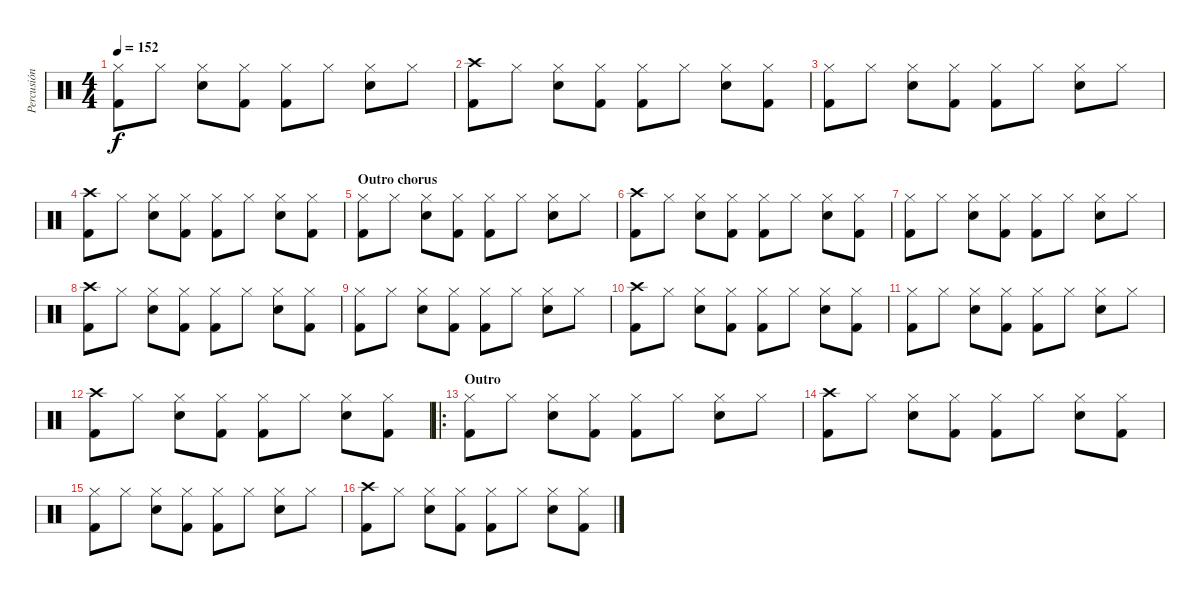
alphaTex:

\track ("Percusión" "Percusión") {instrument percussion}
\staff {score}
\articulation defaults
\ts (4 4)
\tempo 152
\clef neutral
\ks c
("Kick (hit) 2" "Hi-Hat (closed)").8{dy f} "Hi-Hat (closed)".8 ("Hi-Hat (closed)" "Electric Snare (hit)").8 ("Kick (hit) 2" "Hi-Hat (closed)").8 ("Kick (hit) 2" "Hi-Hat (closed)").8 "Hi-Hat (closed)".8 ("Hi-Hat (closed)" "Electric Snare (hit)").8 "Hi-Hat (closed)".8 |
("Kick (hit) 2" "Crash high (hit)").8 "Hi-Hat (closed)".8 ("Hi-Hat (closed)" "Electric Snare (hit)").8 ("Kick (hit) 2" "Hi-Hat (closed)").8 ("Kick (hit) 2" "Hi-Hat (closed)").8 "Hi-Hat (closed)".8 ("Hi-Hat (closed)" "Electric Snare (hit)").8 ("Kick (hit) 2" "Hi-Hat (closed)").8 |
("Kick (hit) 2" "Hi-Hat (closed)").8 "Hi-Hat (closed)".8 ("Hi-Hat (closed)" "Electric Snare (hit)").8 ("Kick (hit) 2" "Hi-Hat (closed)").8 ("Kick (hit) 2" "Hi-Hat (closed)").8 "Hi-Hat (closed)".8 ("Hi-Hat (closed)" "Electric Snare (hit)").8 "Hi-Hat (closed)".8 |
("Kick (hit) 2" "Crash high (hit)").8 "Hi-Hat (closed)".8 ("Hi-Hat (closed)" "Electric Snare (hit)").8 ("Kick (hit) 2" "Hi-Hat (closed)").8 ("Kick (hit) 2" "Hi-Hat (closed)").8 "Hi-Hat (closed)".8 ("Hi-Hat (closed)" "Electric Snare (hit)").8 ("Kick (hit) 2" "Hi-Hat (closed)").8 |
\section ("" "Outro chorus")
("Kick (hit) 2" "Hi-Hat (closed)").8 "Hi-Hat (closed)".8 ("Hi-Hat (closed)" "Electric Snare (hit)").8 ("Kick (hit) 2" "Hi-Hat (closed)").8 ("Kick (hit) 2" "Hi-Hat (closed)").8 "Hi-Hat (closed)".8 ("Hi-Hat (closed)" "Electric Snare (hit)").8 "Hi-Hat (closed)".8 |
("Kick (hit) 2" "Crash high (hit)").8 "Hi-Hat (closed)".8 ("Hi-Hat (closed)" "Electric Snare (hit)").8 ("Kick (hit) 2" "Hi-Hat (closed)").8 ("Kick (hit) 2" "Hi-Hat (closed)").8 "Hi-Hat (closed)".8 ("Hi-Hat (closed)" "Electric Snare (hit)").8 ("Kick (hit) 2" "Hi-Hat (closed)").8 |
("Kick (hit) 2" "Hi-Hat (closed)").8 "Hi-Hat (closed)".8 ("Hi-Hat (closed)" "Electric Snare (hit)").8 ("Kick (hit) 2" "Hi-Hat (closed)").8 ("Kick (hit) 2" "Hi-Hat (closed)").8 "Hi-Hat (closed)".8 ("Hi-Hat (closed)" "Electric Snare (hit)").8 "Hi-Hat (closed)".8 |
("Kick (hit) 2" "Crash high (hit)").8 "Hi-Hat (closed)".8 ("Hi-Hat (closed)" "Electric Snare (hit)").8 ("Kick (hit) 2" "Hi-Hat (closed)").8 ("Kick (hit) 2" "Hi-Hat (closed)").8 "Hi-Hat (closed)".8 ("Hi-Hat (closed)" "Electric Snare (hit)").8 ("Kick (hit) 2" "Hi-Hat (closed)").8 |
("Kick (hit) 2" "Hi-Hat (closed)").8 "Hi-Hat (closed)".8 ("Hi-Hat (closed)" "Electric Snare (hit)").8 ("Kick (hit) 2" "Hi-Hat (closed)").8 ("Kick (hit) 2" "Hi-Hat (closed)").8 "Hi-Hat (closed)".8 ("Hi-Hat (closed)" "Electric Snare (hit)").8 "Hi-Hat (closed)".8 |
("Kick (hit) 2" "Crash high (hit)").8 "Hi-Hat (closed)".8 ("Hi-Hat (closed)" "Electric Snare (hit)").8 ("Kick (hit) 2" "Hi-Hat (closed)").8 ("Kick (hit) 2" "Hi-Hat (closed)").8 "Hi-Hat (closed)".8 ("Hi-Hat (closed)" "Electric Snare (hit)").8 ("Kick (hit) 2" "Hi-Hat (closed)").8 |
("Kick (hit) 2" "Hi-Hat (closed)").8 "Hi-Hat (closed)".8 ("Hi-Hat (closed)" "Electric Snare (hit)").8 ("Kick (hit) 2" "Hi-Hat (closed)").8 ("Kick (hit) 2" "Hi-Hat (closed)").8 "Hi-Hat (closed)".8 ("Hi-Hat (closed)" "Electric Snare (hit)").8 "Hi-Hat (closed)".8 |
("Kick (hit) 2" "Crash high (hit)").8 "Hi-Hat (closed)".8 ("Hi-Hat (closed)" "Electric Snare (hit)").8 ("Kick (hit) 2" "Hi-Hat (closed)").8 ("Kick (hit) 2" "Hi-Hat (closed)").8 "Hi-Hat (closed)".8 ("Hi-Hat (closed)" "Electric Snare (hit)").8 ("Kick (hit) 2" "Hi-Hat (closed)").8 |
\ro
\section ("" "Outro")
("Kick (hit) 2" "Hi-Hat (closed)").8 "Hi-Hat (closed)".8 ("Hi-Hat (closed)" "Electric Snare (hit)").8 ("Kick (hit) 2" "Hi-Hat (closed)").8 ("Kick (hit) 2" "Hi-Hat (closed)").8 "Hi-Hat (closed)".8 ("Hi-Hat (closed)" "Electric Snare (hit)").8 "Hi-Hat (closed)".8 |
("Kick (hit) 2" "Crash high (hit)").8 "Hi-Hat (closed)".8 ("Hi-Hat (closed)" "Electric Snare (hit)").8 ("Kick (hit) 2" "Hi-Hat (closed)").8 ("Kick (hit) 2" "Hi-Hat (closed)").8 "Hi-Hat (closed)".8 ("Hi-Hat (closed)" "Electric Snare (hit)").8 ("Kick (hit) 2" "Hi-Hat (closed)").8 |
("Kick (hit) 2" "Hi-Hat (closed)").8 "Hi-Hat (closed)".8 ("Hi-Hat (closed)" "Electric Snare (hit)").8 ("Kick (hit) 2" "Hi-Hat (closed)").8 ("Kick (hit) 2" "Hi-Hat (closed)").8 "Hi-Hat (closed)".8 ("Hi-Hat (closed)" "Electric Snare (hit)").8 "Hi-Hat (closed)".8 |
("Kick (hit) 2" "Crash high (hit)").8 "Hi-Hat (closed)".8 ("Hi-Hat (closed)" "Electric Snare (hit)").8 ("Kick (hit) 2" "Hi-Hat (closed)").8 ("Kick (hit) 2" "Hi-Hat (closed)").8 "Hi-Hat (closed)".8 ("Hi-Hat (closed)" "Electric Snare (hit)").8 ("Kick (hit) 2" "Hi-Hat (closed)").8
